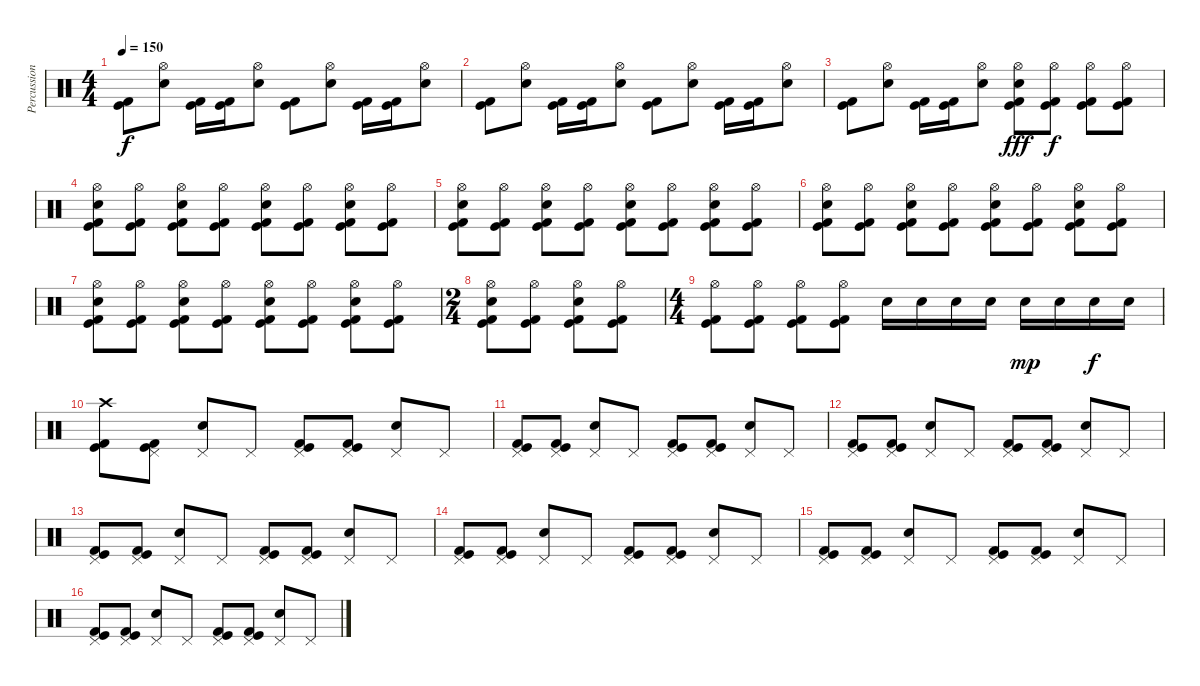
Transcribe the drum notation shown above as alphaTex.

\track ("Percussions" "Percussion") {instrument percussion}
\staff {score}
\articulation defaults
\ts (4 4)
\tempo 150
\clef neutral
\ks c
("Kick (hit)" "Kick (hit) 2").8{dy f} ("Hi-Hat (open)" "Electric Snare (hit)").8 ("Kick (hit)" "Kick (hit) 2").16 ("Kick (hit)" "Kick (hit) 2").16 ("Hi-Hat (open)" "Electric Snare (hit)").8 ("Kick (hit)" "Kick (hit) 2").8 ("Hi-Hat (open)" "Electric Snare (hit)").8 ("Kick (hit)" "Kick (hit) 2").16 ("Kick (hit)" "Kick (hit) 2").16 ("Hi-Hat (open)" "Electric Snare (hit)").8 |
("Kick (hit)" "Kick (hit) 2").8 ("Hi-Hat (open)" "Electric Snare (hit)").8 ("Kick (hit)" "Kick (hit) 2").16 ("Kick (hit)" "Kick (hit) 2").16 ("Hi-Hat (open)" "Electric Snare (hit)").8 ("Kick (hit)" "Kick (hit) 2").8 ("Hi-Hat (open)" "Electric Snare (hit)").8 ("Kick (hit)" "Kick (hit) 2").16 ("Kick (hit)" "Kick (hit) 2").16 ("Hi-Hat (open)" "Electric Snare (hit)").8 |
("Kick (hit)" "Kick (hit) 2").8 ("Hi-Hat (open)" "Electric Snare (hit)").8 ("Kick (hit)" "Kick (hit) 2").16 ("Kick (hit)" "Kick (hit) 2").16 ("Hi-Hat (open)" "Electric Snare (hit)").8 ("Hi-Hat (open)" "Electric Snare (hit)" "Kick (hit)" "Kick (hit) 2").8{dy fff} ("Hi-Hat (open)" "Kick (hit)" "Kick (hit) 2").8{dy f} ("Hi-Hat (open)" "Kick (hit)" "Kick (hit) 2").8 ("Hi-Hat (open)" "Kick (hit)" "Kick (hit) 2").8 |
("Hi-Hat (open)" "Electric Snare (hit)" "Kick (hit)" "Kick (hit) 2").8 ("Hi-Hat (open)" "Kick (hit)" "Kick (hit) 2").8 ("Hi-Hat (open)" "Electric Snare (hit)" "Kick (hit)" "Kick (hit) 2").8 ("Hi-Hat (open)" "Kick (hit)" "Kick (hit) 2").8 ("Hi-Hat (open)" "Electric Snare (hit)" "Kick (hit)" "Kick (hit) 2").8 ("Hi-Hat (open)" "Kick (hit)" "Kick (hit) 2").8 ("Hi-Hat (open)" "Electric Snare (hit)" "Kick (hit)" "Kick (hit) 2").8 ("Hi-Hat (open)" "Kick (hit)" "Kick (hit) 2").8 |
("Hi-Hat (open)" "Electric Snare (hit)" "Kick (hit)" "Kick (hit) 2").8 ("Hi-Hat (open)" "Kick (hit)" "Kick (hit) 2").8 ("Hi-Hat (open)" "Electric Snare (hit)" "Kick (hit)" "Kick (hit) 2").8 ("Hi-Hat (open)" "Kick (hit)" "Kick (hit) 2").8 ("Hi-Hat (open)" "Electric Snare (hit)" "Kick (hit)" "Kick (hit) 2").8 ("Hi-Hat (open)" "Kick (hit)" "Kick (hit) 2").8 ("Hi-Hat (open)" "Electric Snare (hit)" "Kick (hit)" "Kick (hit) 2").8 ("Hi-Hat (open)" "Kick (hit)" "Kick (hit) 2").8 |
("Hi-Hat (open)" "Electric Snare (hit)" "Kick (hit)" "Kick (hit) 2").8 ("Hi-Hat (open)" "Kick (hit)" "Kick (hit) 2").8 ("Hi-Hat (open)" "Electric Snare (hit)" "Kick (hit)" "Kick (hit) 2").8 ("Hi-Hat (open)" "Kick (hit)" "Kick (hit) 2").8 ("Hi-Hat (open)" "Electric Snare (hit)" "Kick (hit)" "Kick (hit) 2").8 ("Hi-Hat (open)" "Kick (hit)" "Kick (hit) 2").8 ("Hi-Hat (open)" "Electric Snare (hit)" "Kick (hit)" "Kick (hit) 2").8 ("Hi-Hat (open)" "Kick (hit)" "Kick (hit) 2").8 |
("Hi-Hat (open)" "Electric Snare (hit)" "Kick (hit)" "Kick (hit) 2").8 ("Hi-Hat (open)" "Kick (hit)" "Kick (hit) 2").8 ("Hi-Hat (open)" "Electric Snare (hit)" "Kick (hit)" "Kick (hit) 2").8 ("Hi-Hat (open)" "Kick (hit)" "Kick (hit) 2").8 ("Hi-Hat (open)" "Electric Snare (hit)" "Kick (hit)" "Kick (hit) 2").8 ("Hi-Hat (open)" "Kick (hit)" "Kick (hit) 2").8 ("Hi-Hat (open)" "Electric Snare (hit)" "Kick (hit)" "Kick (hit) 2").8 ("Hi-Hat (open)" "Kick (hit)" "Kick (hit) 2").8 |
\ts (2 4)
("Hi-Hat (open)" "Electric Snare (hit)" "Kick (hit)" "Kick (hit) 2").8 ("Hi-Hat (open)" "Kick (hit)" "Kick (hit) 2").8 ("Hi-Hat (open)" "Electric Snare (hit)" "Kick (hit)" "Kick (hit) 2").8 ("Hi-Hat (open)" "Kick (hit)" "Kick (hit) 2").8 |
\ts (4 4)
("Hi-Hat (open)" "Kick (hit)" "Kick (hit) 2").8 ("Hi-Hat (open)" "Kick (hit)" "Kick (hit) 2").8 ("Hi-Hat (open)" "Kick (hit)" "Kick (hit) 2").8 ("Hi-Hat (open)" "Kick (hit)" "Kick (hit) 2").8 "Electric Snare (hit)".16 "Electric Snare (hit)".16 "Electric Snare (hit)".16 "Electric Snare (hit)".16 "Electric Snare (hit)".16{dy mp} "Electric Snare (hit)".16 "Electric Snare (hit)".16{dy f} "Electric Snare (hit)".16 |
("Crash high (hit)" "Kick (hit)" "Kick (hit) 2").8 ("Pedal Hi-Hat (hit)" "Kick (hit)" "Kick (hit) 2").8 ("Pedal Hi-Hat (hit)" "Electric Snare (hit)").8 "Pedal Hi-Hat (hit)".8 ("Pedal Hi-Hat (hit)" "Kick (hit)" "Kick (hit) 2").8 ("Pedal Hi-Hat (hit)" "Kick (hit)" "Kick (hit) 2").8 ("Pedal Hi-Hat (hit)" "Electric Snare (hit)").8 "Pedal Hi-Hat (hit)".8 |
("Pedal Hi-Hat (hit)" "Kick (hit)" "Kick (hit) 2").8 ("Pedal Hi-Hat (hit)" "Kick (hit)" "Kick (hit) 2").8 ("Pedal Hi-Hat (hit)" "Electric Snare (hit)").8 "Pedal Hi-Hat (hit)".8 ("Pedal Hi-Hat (hit)" "Kick (hit)" "Kick (hit) 2").8 ("Pedal Hi-Hat (hit)" "Kick (hit)" "Kick (hit) 2").8 ("Pedal Hi-Hat (hit)" "Electric Snare (hit)").8 "Pedal Hi-Hat (hit)".8 |
("Pedal Hi-Hat (hit)" "Kick (hit)" "Kick (hit) 2").8 ("Pedal Hi-Hat (hit)" "Kick (hit)" "Kick (hit) 2").8 ("Pedal Hi-Hat (hit)" "Electric Snare (hit)").8 "Pedal Hi-Hat (hit)".8 ("Pedal Hi-Hat (hit)" "Kick (hit)" "Kick (hit) 2").8 ("Pedal Hi-Hat (hit)" "Kick (hit)" "Kick (hit) 2").8 ("Pedal Hi-Hat (hit)" "Electric Snare (hit)").8 "Pedal Hi-Hat (hit)".8 |
("Pedal Hi-Hat (hit)" "Kick (hit)" "Kick (hit) 2").8 ("Pedal Hi-Hat (hit)" "Kick (hit)" "Kick (hit) 2").8 ("Pedal Hi-Hat (hit)" "Electric Snare (hit)").8 "Pedal Hi-Hat (hit)".8 ("Pedal Hi-Hat (hit)" "Kick (hit)" "Kick (hit) 2").8 ("Pedal Hi-Hat (hit)" "Kick (hit)" "Kick (hit) 2").8 ("Pedal Hi-Hat (hit)" "Electric Snare (hit)").8 "Pedal Hi-Hat (hit)".8 |
("Pedal Hi-Hat (hit)" "Kick (hit)" "Kick (hit) 2").8 ("Pedal Hi-Hat (hit)" "Kick (hit)" "Kick (hit) 2").8 ("Pedal Hi-Hat (hit)" "Electric Snare (hit)").8 "Pedal Hi-Hat (hit)".8 ("Pedal Hi-Hat (hit)" "Kick (hit)" "Kick (hit) 2").8 ("Pedal Hi-Hat (hit)" "Kick (hit)" "Kick (hit) 2").8 ("Pedal Hi-Hat (hit)" "Electric Snare (hit)").8 "Pedal Hi-Hat (hit)".8 |
("Pedal Hi-Hat (hit)" "Kick (hit)" "Kick (hit) 2").8 ("Pedal Hi-Hat (hit)" "Kick (hit)" "Kick (hit) 2").8 ("Pedal Hi-Hat (hit)" "Electric Snare (hit)").8 "Pedal Hi-Hat (hit)".8 ("Pedal Hi-Hat (hit)" "Kick (hit)" "Kick (hit) 2").8 ("Pedal Hi-Hat (hit)" "Kick (hit)" "Kick (hit) 2").8 ("Pedal Hi-Hat (hit)" "Electric Snare (hit)").8 "Pedal Hi-Hat (hit)".8 |
("Pedal Hi-Hat (hit)" "Kick (hit)" "Kick (hit) 2").8 ("Pedal Hi-Hat (hit)" "Kick (hit)" "Kick (hit) 2").8 ("Pedal Hi-Hat (hit)" "Electric Snare (hit)").8 "Pedal Hi-Hat (hit)".8 ("Pedal Hi-Hat (hit)" "Kick (hit)" "Kick (hit) 2").8 ("Pedal Hi-Hat (hit)" "Kick (hit)" "Kick (hit) 2").8 ("Pedal Hi-Hat (hit)" "Electric Snare (hit)").8 "Pedal Hi-Hat (hit)".8
